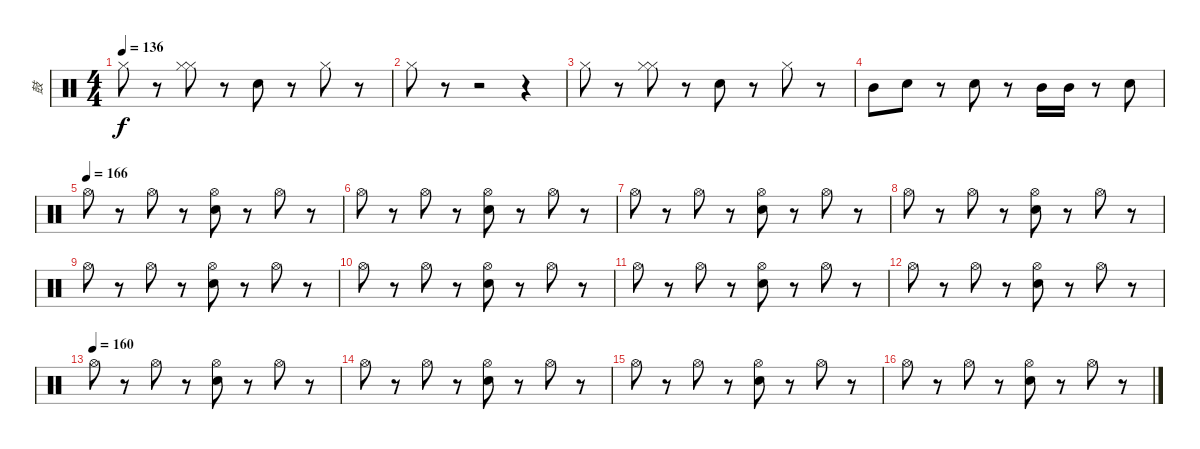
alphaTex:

\track ("鼓" "鼓") {instrument percussion}
\staff {score}
\articulation defaults
\ts (4 4)
\tempo 136
\clef neutral
\ks c "Hi-Hat (closed)".8{dy f}
r.8 ("Hi-Hat (closed)" "Hi-Hat (closed)").8 r.8 "Snare (hit) 2".8 r.8 "Hi-Hat (closed)".8 r.8 |
"Hi-Hat (closed)".8 r.8 r.2 r.4 |
"Hi-Hat (closed)".8 r.8 ("Hi-Hat (closed)" "Hi-Hat (closed)").8 r.8 "Snare (hit) 2".8 r.8 "Hi-Hat (closed)".8 r.8 |
"Mid Tom (hit)".8 "Electric Snare (hit)".8 r.8 "Electric Snare (hit)".8 r.8 "Mid Tom (hit)".16 "Mid Tom (hit)".16 r.8 "Electric Snare (hit)".8 |
\tempo (166)
"Hi-Hat (open)".8 r.8 "Hi-Hat (open)".8 r.8 ("Electric Snare (hit)" "Hi-Hat (open)").8 r.8 "Hi-Hat (open)".8 r.8 |
"Hi-Hat (open)".8 r.8 "Hi-Hat (open)".8 r.8 ("Electric Snare (hit)" "Hi-Hat (open)").8 r.8 "Hi-Hat (open)".8 r.8 |
"Hi-Hat (open)".8 r.8 "Hi-Hat (open)".8 r.8 ("Electric Snare (hit)" "Hi-Hat (open)").8 r.8 "Hi-Hat (open)".8 r.8 |
"Hi-Hat (open)".8 r.8 "Hi-Hat (open)".8 r.8 ("Electric Snare (hit)" "Hi-Hat (open)").8 r.8 "Hi-Hat (open)".8 r.8 |
"Hi-Hat (open)".8 r.8 "Hi-Hat (open)".8 r.8 ("Electric Snare (hit)" "Hi-Hat (open)").8 r.8 "Hi-Hat (open)".8 r.8 |
"Hi-Hat (open)".8 r.8 "Hi-Hat (open)".8 r.8 ("Electric Snare (hit)" "Hi-Hat (open)").8 r.8 "Hi-Hat (open)".8 r.8 |
"Hi-Hat (open)".8 r.8 "Hi-Hat (open)".8 r.8 ("Electric Snare (hit)" "Hi-Hat (open)").8 r.8 "Hi-Hat (open)".8 r.8 |
"Hi-Hat (open)".8 r.8 "Hi-Hat (open)".8 r.8 ("Electric Snare (hit)" "Hi-Hat (open)").8 r.8 "Hi-Hat (open)".8 r.8 |
\tempo (160)
"Hi-Hat (open)".8 r.8 "Hi-Hat (open)".8 r.8 ("Electric Snare (hit)" "Hi-Hat (open)").8 r.8 "Hi-Hat (open)".8 r.8 |
"Hi-Hat (open)".8 r.8 "Hi-Hat (open)".8 r.8 ("Electric Snare (hit)" "Hi-Hat (open)").8 r.8 "Hi-Hat (open)".8 r.8 |
"Hi-Hat (open)".8 r.8 "Hi-Hat (open)".8 r.8 ("Electric Snare (hit)" "Hi-Hat (open)").8 r.8 "Hi-Hat (open)".8 r.8 |
"Hi-Hat (open)".8 r.8 "Hi-Hat (open)".8 r.8 ("Electric Snare (hit)" "Hi-Hat (open)").8 r.8 "Hi-Hat (open)".8 r.8
